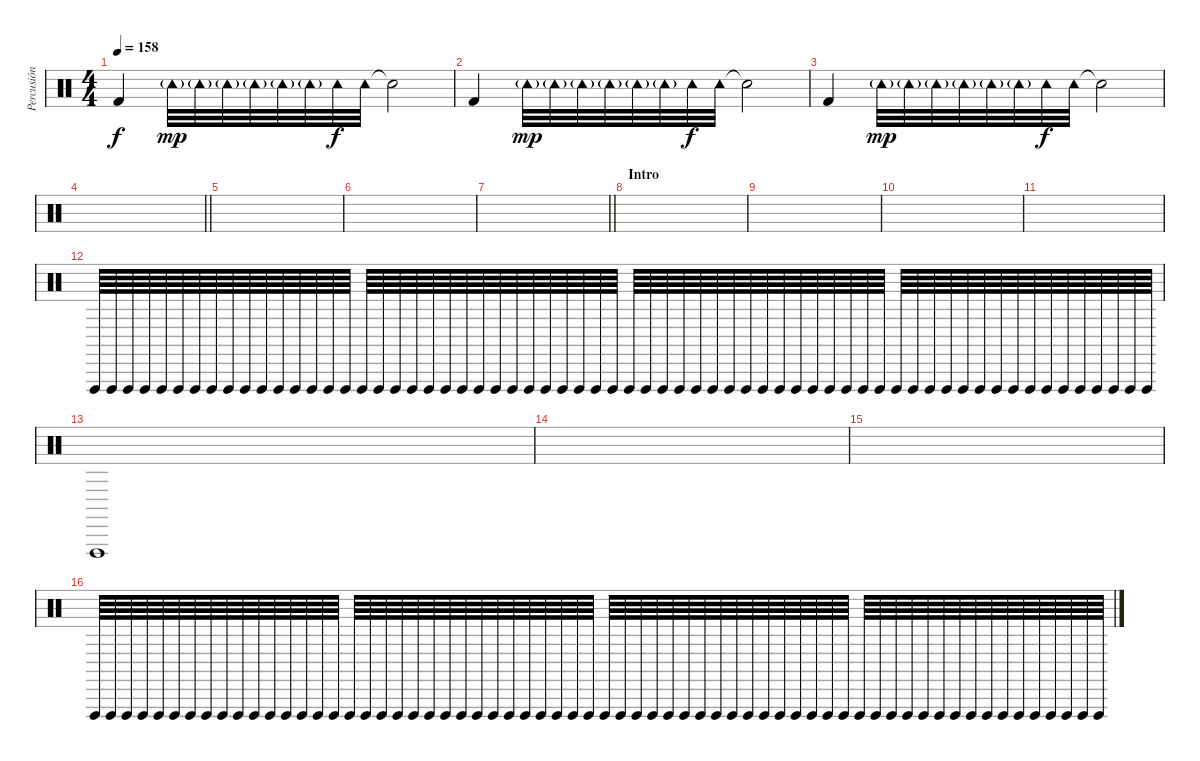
\track ("Percusión" "Percusión") {instrument percussion}
\staff {score}
\articulation defaults
\ts (4 4)
\tempo 158
\clef neutral
\ks c "Kick (hit) 2".4{dy f} "Tambourine (hit)"{g}.32{dy mp} "Tambourine (hit)"{g}.32 "Tambourine (hit)"{g}.32 "Tambourine (hit)"{g}.32 "Tambourine (hit)"{g}.32 "Tambourine (hit)"{g}.32 "Tambourine (hit)".32{dy f} "Tambourine (hit)".32 "Snare (hit)"{t}.2
|
"Kick (hit) 2".4 "Tambourine (hit)"{g}.32{dy mp} "Tambourine (hit)"{g}.32 "Tambourine (hit)"{g}.32 "Tambourine (hit)"{g}.32 "Tambourine (hit)"{g}.32 "Tambourine (hit)"{g}.32 "Tambourine (hit)".32{dy f} "Tambourine (hit)".32 "Snare (hit)"{t}.2 |
"Kick (hit) 2".4 "Tambourine (hit)"{g}.32{dy mp} "Tambourine (hit)"{g}.32 "Tambourine (hit)"{g}.32 "Tambourine (hit)"{g}.32 "Tambourine (hit)"{g}.32 "Tambourine (hit)"{g}.32 "Tambourine (hit)".32{dy f} "Tambourine (hit)".32 "Snare (hit)"{t}.2 |
\barLineRight lightlight
|
|
|
\barLineRight lightlight
|
\section ("" "Intro")
|
|
|
|
"Vibraslap (hit)".64 "Vibraslap (hit)".64 "Vibraslap (hit)".64 "Vibraslap (hit)".64 "Vibraslap (hit)".64 "Vibraslap (hit)".64 "Vibraslap (hit)".64 "Vibraslap (hit)".64 "Vibraslap (hit)".64 "Vibraslap (hit)".64 "Vibraslap (hit)".64 "Vibraslap (hit)".64 "Vibraslap (hit)".64 "Vibraslap (hit)".64 "Vibraslap (hit)".64 "Vibraslap (hit)".64 "Vibraslap (hit)".64 "Vibraslap (hit)".64 "Vibraslap (hit)".64 "Vibraslap (hit)".64 "Vibraslap (hit)".64 "Vibraslap (hit)".64 "Vibraslap (hit)".64 "Vibraslap (hit)".64 "Vibraslap (hit)".64 "Vibraslap (hit)".64 "Vibraslap (hit)".64 "Vibraslap (hit)".64 "Vibraslap (hit)".64 "Vibraslap (hit)".64 "Vibraslap (hit)".64 "Vibraslap (hit)".64 "Vibraslap (hit)".64 "Vibraslap (hit)".64 "Vibraslap (hit)".64 "Vibraslap (hit)".64 "Vibraslap (hit)".64 "Vibraslap (hit)".64 "Vibraslap (hit)".64 "Vibraslap (hit)".64 "Vibraslap (hit)".64 "Vibraslap (hit)".64 "Vibraslap (hit)".64 "Vibraslap (hit)".64 "Vibraslap (hit)".64 "Vibraslap (hit)".64 "Vibraslap (hit)".64 "Vibraslap (hit)".64 "Vibraslap (hit)".64 "Vibraslap (hit)".64 "Vibraslap (hit)".64 "Vibraslap (hit)".64 "Vibraslap (hit)".64 "Vibraslap (hit)".64 "Vibraslap (hit)".64 "Vibraslap (hit)".64 "Vibraslap (hit)".64 "Vibraslap (hit)".64 "Vibraslap (hit)".64 "Vibraslap (hit)".64 "Vibraslap (hit)".64 "Vibraslap (hit)".64 "Vibraslap (hit)".64 "Vibraslap (hit)".64 |
"Vibraslap (hit)".1 |
|
|
"Vibraslap (hit)".64 "Vibraslap (hit)".64 "Vibraslap (hit)".64 "Vibraslap (hit)".64 "Vibraslap (hit)".64 "Vibraslap (hit)".64 "Vibraslap (hit)".64 "Vibraslap (hit)".64 "Vibraslap (hit)".64 "Vibraslap (hit)".64 "Vibraslap (hit)".64 "Vibraslap (hit)".64 "Vibraslap (hit)".64 "Vibraslap (hit)".64 "Vibraslap (hit)".64 "Vibraslap (hit)".64 "Vibraslap (hit)".64 "Vibraslap (hit)".64 "Vibraslap (hit)".64 "Vibraslap (hit)".64 "Vibraslap (hit)".64 "Vibraslap (hit)".64 "Vibraslap (hit)".64 "Vibraslap (hit)".64 "Vibraslap (hit)".64 "Vibraslap (hit)".64 "Vibraslap (hit)".64 "Vibraslap (hit)".64 "Vibraslap (hit)".64 "Vibraslap (hit)".64 "Vibraslap (hit)".64 "Vibraslap (hit)".64 "Vibraslap (hit)".64 "Vibraslap (hit)".64 "Vibraslap (hit)".64 "Vibraslap (hit)".64 "Vibraslap (hit)".64 "Vibraslap (hit)".64 "Vibraslap (hit)".64 "Vibraslap (hit)".64 "Vibraslap (hit)".64 "Vibraslap (hit)".64 "Vibraslap (hit)".64 "Vibraslap (hit)".64 "Vibraslap (hit)".64 "Vibraslap (hit)".64 "Vibraslap (hit)".64 "Vibraslap (hit)".64 "Vibraslap (hit)".64 "Vibraslap (hit)".64 "Vibraslap (hit)".64 "Vibraslap (hit)".64 "Vibraslap (hit)".64 "Vibraslap (hit)".64 "Vibraslap (hit)".64 "Vibraslap (hit)".64 "Vibraslap (hit)".64 "Vibraslap (hit)".64 "Vibraslap (hit)".64 "Vibraslap (hit)".64 "Vibraslap (hit)".64 "Vibraslap (hit)".64 "Vibraslap (hit)".64 "Vibraslap (hit)".64
